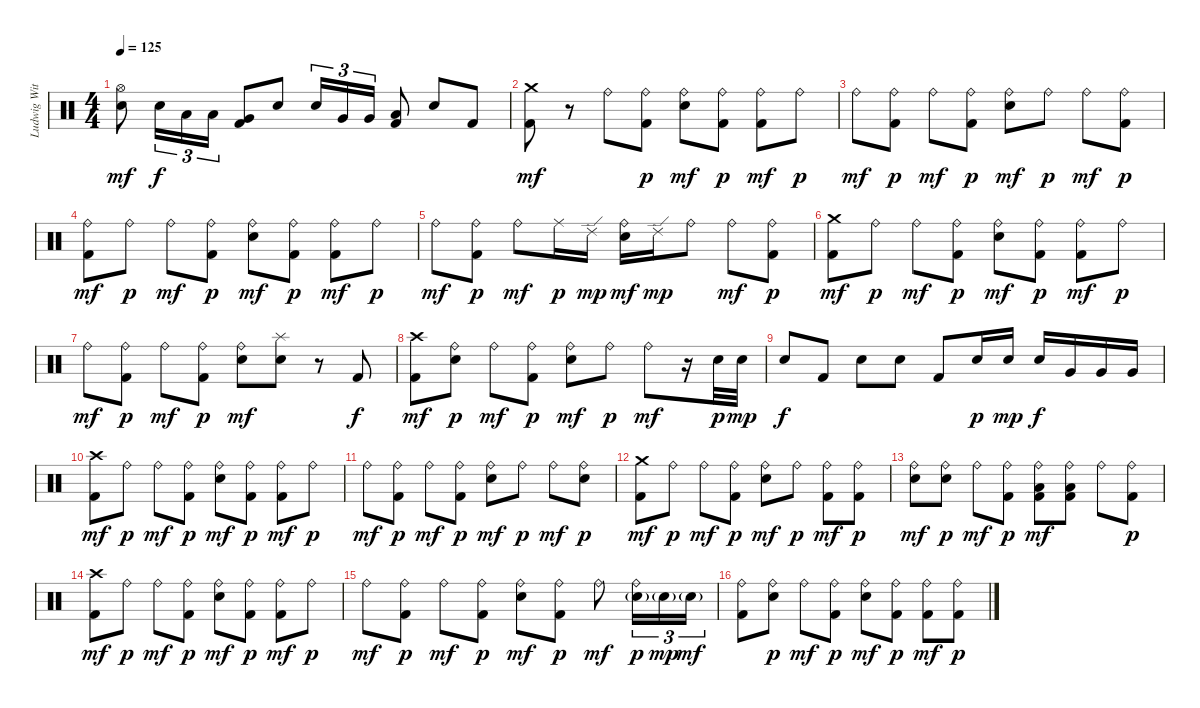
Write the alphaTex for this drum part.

\track ("Ludwig Witt" "Ludwig Wit") {instrument percussion}
\staff {score}
\articulation defaults
\ts (4 4)
\tempo 125
\clef neutral
\ks c
("Hi-Hat (open)" "Electric Snare (hit)").8{dy mf} "Electric Snare (hit)".16{tu (3 2) dy f} "Low Tom (hit)".16{tu (3 2)} "Low Tom (hit)".16{tu (3 2)} ("Very Low Tom (hit)" "Kick (hit) 2").8 "Electric Snare (hit)".8 "Electric Snare (hit)".16{tu (3 2)} "Very Low Tom (hit)".16{tu (3 2)} "Very Low Tom (hit)".16{tu (3 2)} ("Low Floor Tom (hit)" "Kick (hit) 2").8 "Electric Snare (hit)".8 "Kick (hit) 2".8 |
("Crash medium (hit)" "Kick (hit) 2").8{dy mf} r.8 "Ride (bell)".8 ("Ride (bell)" "Kick (hit) 2").8{dy p} ("Ride (bell)" "Electric Snare (hit)").8{dy mf} ("Ride (bell)" "Kick (hit) 2").8{dy p} ("Ride (bell)" "Kick (hit) 2").8{dy mf} "Ride (bell)".8{dy p} |
"Ride (bell)".8{dy mf} ("Ride (bell)" "Kick (hit) 2").8{dy p} "Ride (bell)".8{dy mf} ("Ride (bell)" "Kick (hit) 2").8{dy p} ("Ride (bell)" "Electric Snare (hit)").8{dy mf} "Ride (bell)".8{dy p} "Ride (bell)".8{dy mf} ("Ride (bell)" "Kick (hit) 2").8{dy p} |
("Ride (bell)" "Kick (hit) 2").8{dy mf} "Ride (bell)".8{dy p} "Ride (bell)".8{dy mf} ("Ride (bell)" "Kick (hit) 2").8{dy p} ("Ride (bell)" "Electric Snare (hit)").8{dy mf} ("Ride (bell)" "Kick (hit) 2").8{dy p} ("Ride (bell)" "Kick (hit) 2").8{dy mf} "Ride (bell)".8{dy p} |
"Ride (bell)".8{dy mf} ("Ride (bell)" "Kick (hit) 2").8{dy p} "Ride (bell)".8{dy mf} "Ride (middle)".16{dy p} "Ride (edge) 2".16{dy mp} ("Ride (bell)" "Electric Snare (hit)").16{dy mf} "Ride (edge) 2".16{dy mp} "Ride (bell)".8 "Ride (bell)".8{dy mf} ("Ride (bell)" "Kick (hit) 2").8{dy p} |
("Crash medium (hit)" "Kick (hit) 2").8{dy mf} "Ride (bell)".8{dy p} "Ride (bell)".8{dy mf} ("Ride (bell)" "Kick (hit) 2").8{dy p} ("Ride (bell)" "Electric Snare (hit)").8{dy mf} ("Ride (bell)" "Kick (hit) 2").8{dy p} ("Ride (bell)" "Kick (hit) 2").8{dy mf} "Ride (bell)".8{dy p} |
"Ride (bell)".8{dy mf} ("Ride (bell)" "Kick (hit) 2").8{dy p} "Ride (bell)".8{dy mf} ("Ride (bell)" "Kick (hit) 2").8{dy p} ("Ride (bell)" "Electric Snare (hit)").8{dy mf} ("Splash (hit)" "Electric Snare (hit)").8 r.8 "Kick (hit) 2".8{dy f} |
("Crash high (hit)" "Kick (hit) 2").8{dy mf} ("Ride (bell)" "Electric Snare (hit)").8{dy p} "Ride (bell)".8{dy mf} ("Ride (bell)" "Kick (hit) 2").8{dy p} ("Ride (bell)" "Electric Snare (hit)").8{dy mf} "Ride (bell)".8{dy p} "Ride (bell)".8{dy mf} r.16 "Electric Snare (hit)".32{dy p} "Electric Snare (hit)".32{dy mp} |
"Electric Snare (hit)".8{dy f} "Kick (hit) 2".8 "Electric Snare (hit)".8 "Electric Snare (hit)".8 "Kick (hit) 2".8 "Electric Snare (hit)".16{dy p} "Electric Snare (hit)".16{dy mp} "Electric Snare (hit)".16{dy f} "Very Low Tom (hit)".16 "Very Low Tom (hit)".16 "Very Low Tom (hit)".16 |
("Crash high (hit)" "Kick (hit) 2").8{dy mf} "Ride (bell)".8{dy p} "Ride (bell)".8{dy mf} ("Ride (bell)" "Kick (hit) 2").8{dy p} ("Ride (bell)" "Electric Snare (hit)").8{dy mf} ("Ride (bell)" "Kick (hit) 2").8{dy p} ("Ride (bell)" "Kick (hit) 2").8{dy mf} "Ride (bell)".8{dy p} |
"Ride (bell)".8{dy mf} ("Ride (bell)" "Kick (hit) 2").8{dy p} "Ride (bell)".8{dy mf} ("Ride (bell)" "Kick (hit) 2").8{dy p} ("Ride (bell)" "Electric Snare (hit)").8{dy mf} "Ride (bell)".8{dy p} "Ride (bell)".8{dy mf} ("Ride (bell)" "Electric Snare (hit)").8{dy p} |
("Crash medium (hit)" "Kick (hit) 2").8{dy mf} "Ride (bell)".8{dy p} "Ride (bell)".8{dy mf} ("Ride (bell)" "Kick (hit) 2").8{dy p} ("Ride (bell)" "Electric Snare (hit)").8{dy mf} "Ride (bell)".8{dy p} ("Ride (bell)" "Kick (hit) 2").8{dy mf} ("Ride (bell)" "Kick (hit) 2").8{dy p} |
("Ride (bell)" "Electric Snare (hit)").8{dy mf} ("Ride (bell)" "Electric Snare (hit)").8{dy p} "Ride (bell)".8{dy mf} ("Ride (bell)" "Kick (hit) 2").8{dy p} ("Ride (bell)" "Low Floor Tom (hit)" "Kick (hit) 2").8{dy mf} ("Ride (bell)" "Low Floor Tom (hit)" "Kick (hit) 2").8 "Ride (bell)".8 ("Ride (bell)" "Kick (hit) 2").8{dy p} |
("Crash high (hit)" "Kick (hit) 2").8{dy mf} "Ride (bell)".8{dy p} "Ride (bell)".8{dy mf} ("Ride (bell)" "Kick (hit) 2").8{dy p} ("Ride (bell)" "Electric Snare (hit)").8{dy mf} ("Ride (bell)" "Kick (hit) 2").8{dy p} ("Ride (bell)" "Kick (hit) 2").8{dy mf} "Ride (bell)".8{dy p} |
"Ride (bell)".8{dy mf} ("Ride (bell)" "Kick (hit) 2").8{dy p} "Ride (bell)".8{dy mf} ("Ride (bell)" "Kick (hit) 2").8{dy p} ("Ride (bell)" "Electric Snare (hit)").8{dy mf} ("Ride (bell)" "Kick (hit) 2").8{dy p} "Ride (bell)".8{dy mf} ("Ride (bell)" "Electric Snare (hit)"{g}).16{tu (3 2) dy p} "Electric Snare (hit)"{g}.16{tu (3 2) dy mp} "Electric Snare (hit)"{g}.16{tu (3 2) dy mf} |
("Ride (bell)" "Kick (hit) 2").8 ("Ride (bell)" "Electric Snare (hit)").8{dy p} "Ride (bell)".8{dy mf} ("Ride (bell)" "Kick (hit) 2").8{dy p} ("Ride (bell)" "Electric Snare (hit)").8{dy mf} ("Ride (bell)" "Kick (hit) 2").8{dy p} ("Ride (bell)" "Kick (hit) 2").8{dy mf} ("Ride (bell)" "Kick (hit) 2").8{dy p}
